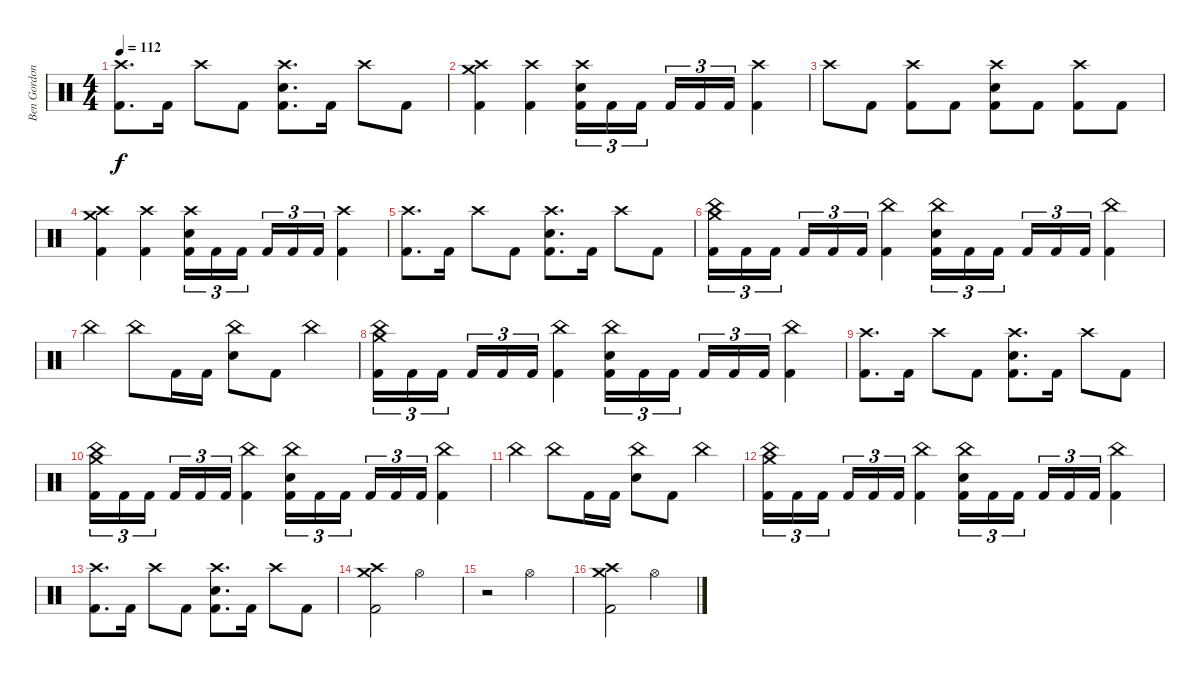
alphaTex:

\track ("Ben Gordon" "Ben Gordon") {instrument percussion}
\staff {score}
\articulation defaults
\ts (4 4)
\tempo 112
\clef neutral
\ks c
("Crash high (hit)" "Kick (hit) 2").8{d dy f} "Kick (hit) 2".16 "Crash high (hit)".8 "Kick (hit) 2".8 ("Crash high (hit)" "Electric Snare (hit)" "Kick (hit) 2").8{d} "Kick (hit) 2".16 "Crash high (hit)".8 "Kick (hit) 2".8 |
("Crash medium (hit)" "Crash high (hit)" "Kick (hit) 2").4 ("Crash high (hit)" "Kick (hit) 2").4 ("Crash high (hit)" "Electric Snare (hit)" "Kick (hit) 2").16{tu (3 2)} "Kick (hit) 2".16{tu (3 2)} "Kick (hit) 2".16{tu (3 2) beam splitsecondary} "Kick (hit) 2".16{tu (3 2)} "Kick (hit) 2".16{tu (3 2)} "Kick (hit) 2".16{tu (3 2)} ("Crash high (hit)" "Kick (hit) 2").4 |
"Crash high (hit)".8 "Kick (hit) 2".8 ("Crash high (hit)" "Kick (hit) 2").8 "Kick (hit) 2".8 ("Crash high (hit)" "Electric Snare (hit)" "Kick (hit) 2").8 "Kick (hit) 2".8 ("Crash high (hit)" "Kick (hit) 2").8 "Kick (hit) 2".8 |
("Crash medium (hit)" "Crash high (hit)" "Kick (hit) 2").4 ("Crash high (hit)" "Kick (hit) 2").4 ("Crash high (hit)" "Electric Snare (hit)" "Kick (hit) 2").16{tu (3 2)} "Kick (hit) 2".16{tu (3 2)} "Kick (hit) 2".16{tu (3 2) beam splitsecondary} "Kick (hit) 2".16{tu (3 2)} "Kick (hit) 2".16{tu (3 2)} "Kick (hit) 2".16{tu (3 2)} ("Crash high (hit)" "Kick (hit) 2").4 |
("Crash high (hit)" "Kick (hit) 2").8{d} "Kick (hit) 2".16 "Crash high (hit)".8 "Kick (hit) 2".8 ("Crash high (hit)" "Electric Snare (hit)" "Kick (hit) 2").8{d} "Kick (hit) 2".16 "Crash high (hit)".8 "Kick (hit) 2".8 |
("Crash medium (hit)" "China (hit)" "Kick (hit) 2").16{tu (3 2)} "Kick (hit) 2".16{tu (3 2)} "Kick (hit) 2".16{tu (3 2) beam splitsecondary} "Kick (hit) 2".16{tu (3 2)} "Kick (hit) 2".16{tu (3 2)} "Kick (hit) 2".16{tu (3 2)} ("China (hit)" "Kick (hit) 2").4 ("China (hit)" "Electric Snare (hit)" "Kick (hit) 2").16{tu (3 2)} "Kick (hit) 2".16{tu (3 2)} "Kick (hit) 2".16{tu (3 2) beam splitsecondary} "Kick (hit) 2".16{tu (3 2)} "Kick (hit) 2".16{tu (3 2)} "Kick (hit) 2".16{tu (3 2)} ("China (hit)" "Kick (hit) 2").4 |
"China (hit)".4 "China (hit)".8 "Kick (hit) 2".16 "Kick (hit) 2".16 ("China (hit)" "Electric Snare (hit)").8 "Kick (hit) 2".8 "China (hit)".4 |
("Crash medium (hit)" "China (hit)" "Kick (hit) 2").16{tu (3 2)} "Kick (hit) 2".16{tu (3 2)} "Kick (hit) 2".16{tu (3 2) beam splitsecondary} "Kick (hit) 2".16{tu (3 2)} "Kick (hit) 2".16{tu (3 2)} "Kick (hit) 2".16{tu (3 2)} ("China (hit)" "Kick (hit) 2").4 ("China (hit)" "Electric Snare (hit)" "Kick (hit) 2").16{tu (3 2)} "Kick (hit) 2".16{tu (3 2)} "Kick (hit) 2".16{tu (3 2) beam splitsecondary} "Kick (hit) 2".16{tu (3 2)} "Kick (hit) 2".16{tu (3 2)} "Kick (hit) 2".16{tu (3 2)} ("China (hit)" "Kick (hit) 2").4 |
("Crash high (hit)" "Kick (hit) 2").8{d} "Kick (hit) 2".16 "Crash high (hit)".8 "Kick (hit) 2".8 ("Crash high (hit)" "Electric Snare (hit)" "Kick (hit) 2").8{d} "Kick (hit) 2".16 "Crash high (hit)".8 "Kick (hit) 2".8 |
("Crash medium (hit)" "China (hit)" "Kick (hit) 2").16{tu (3 2)} "Kick (hit) 2".16{tu (3 2)} "Kick (hit) 2".16{tu (3 2) beam splitsecondary} "Kick (hit) 2".16{tu (3 2)} "Kick (hit) 2".16{tu (3 2)} "Kick (hit) 2".16{tu (3 2)} ("China (hit)" "Kick (hit) 2").4 ("China (hit)" "Electric Snare (hit)" "Kick (hit) 2").16{tu (3 2)} "Kick (hit) 2".16{tu (3 2)} "Kick (hit) 2".16{tu (3 2) beam splitsecondary} "Kick (hit) 2".16{tu (3 2)} "Kick (hit) 2".16{tu (3 2)} "Kick (hit) 2".16{tu (3 2)} ("China (hit)" "Kick (hit) 2").4 |
"China (hit)".4 "China (hit)".8 "Kick (hit) 2".16 "Kick (hit) 2".16 ("China (hit)" "Electric Snare (hit)").8 "Kick (hit) 2".8 "China (hit)".4 |
("Crash medium (hit)" "China (hit)" "Kick (hit) 2").16{tu (3 2)} "Kick (hit) 2".16{tu (3 2)} "Kick (hit) 2".16{tu (3 2) beam splitsecondary} "Kick (hit) 2".16{tu (3 2)} "Kick (hit) 2".16{tu (3 2)} "Kick (hit) 2".16{tu (3 2)} ("China (hit)" "Kick (hit) 2").4 ("China (hit)" "Electric Snare (hit)" "Kick (hit) 2").16{tu (3 2)} "Kick (hit) 2".16{tu (3 2)} "Kick (hit) 2".16{tu (3 2) beam splitsecondary} "Kick (hit) 2".16{tu (3 2)} "Kick (hit) 2".16{tu (3 2)} "Kick (hit) 2".16{tu (3 2)} ("China (hit)" "Kick (hit) 2").4 |
("Crash high (hit)" "Kick (hit) 2").8{d} "Kick (hit) 2".16 "Crash high (hit)".8 "Kick (hit) 2".8 ("Crash high (hit)" "Electric Snare (hit)" "Kick (hit) 2").8{d} "Kick (hit) 2".16 "Crash high (hit)".8 "Kick (hit) 2".8 |
("Crash medium (hit)" "Crash high (hit)" "Kick (hit) 2").2 "Hi-Hat (open)".2 |
r.2 "Hi-Hat (open)".2 |
("Crash medium (hit)" "Crash high (hit)" "Kick (hit) 2").2 "Hi-Hat (open)".2
